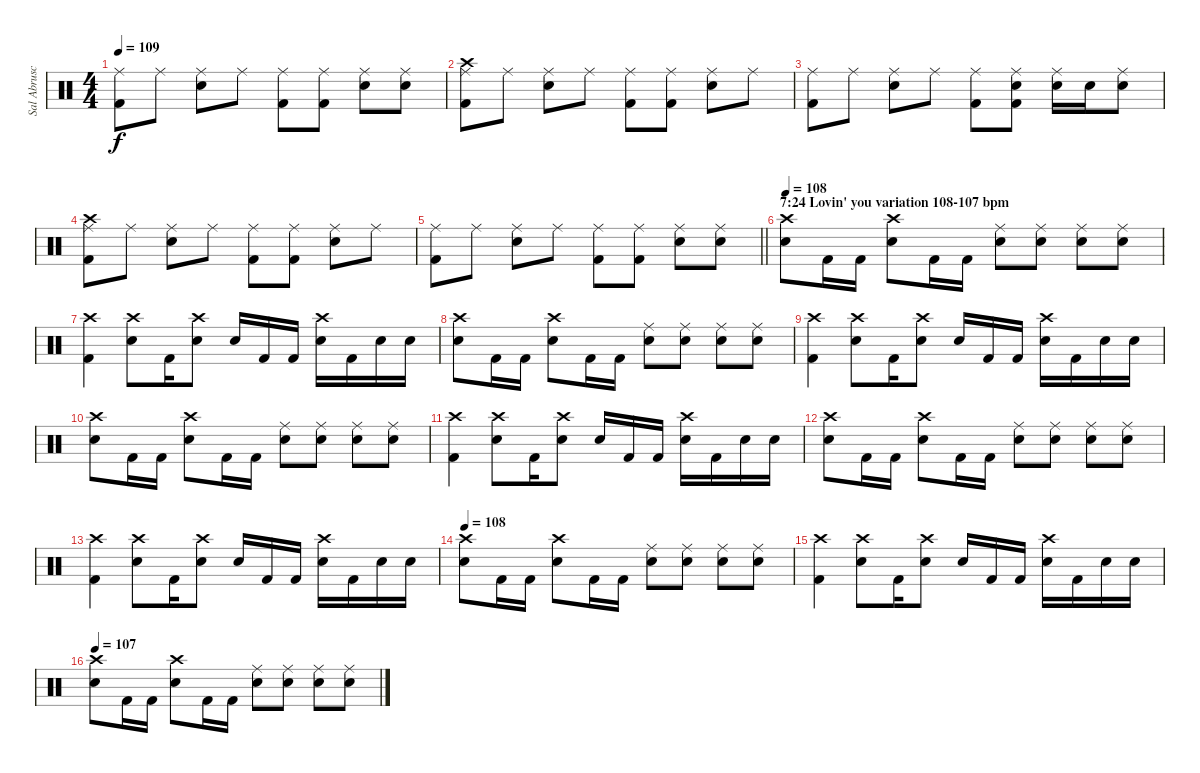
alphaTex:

\track ("Sal Abruscato (Drums)" "Sal Abrusc") {instrument percussion}
\staff {score}
\articulation defaults
\ts (4 4)
\tempo 109
\clef neutral
\ks c
("Ride (middle)" "Kick (hit) 2").8{dy f} "Ride (middle)".8 ("Ride (middle)" "Electric Snare (hit)").8 "Ride (middle)".8 ("Ride (middle)" "Kick (hit) 2").8 ("Ride (middle)" "Kick (hit) 2").8 ("Ride (middle)" "Electric Snare (hit)").8 ("Ride (middle)" "Electric Snare (hit)").8 |
("Ride (middle)" "Crash high (hit)" "Kick (hit) 2").8 "Ride (middle)".8 ("Ride (middle)" "Electric Snare (hit)").8 "Ride (middle)".8 ("Ride (middle)" "Kick (hit) 2").8 ("Ride (middle)" "Kick (hit) 2").8 ("Ride (middle)" "Electric Snare (hit)").8 "Ride (middle)".8 |
("Ride (middle)" "Kick (hit) 2").8 "Ride (middle)".8 ("Ride (middle)" "Electric Snare (hit)").8 "Ride (middle)".8 ("Ride (middle)" "Kick (hit) 2").8 ("Electric Snare (hit)" "Ride (middle)" "Kick (hit) 2").8 ("Electric Snare (hit)" "Ride (middle)").16 "Electric Snare (hit)".16 ("Ride (middle)" "Electric Snare (hit)").8 |
("Ride (middle)" "Crash high (hit)" "Kick (hit) 2").8 "Ride (middle)".8 ("Ride (middle)" "Electric Snare (hit)").8 "Ride (middle)".8 ("Ride (middle)" "Kick (hit) 2").8 ("Ride (middle)" "Kick (hit) 2").8 ("Ride (middle)" "Electric Snare (hit)").8 "Ride (middle)".8 |
\barLineRight lightlight
("Ride (middle)" "Kick (hit) 2").8 "Ride (middle)".8 ("Ride (middle)" "Electric Snare (hit)").8 "Ride (middle)".8 ("Ride (middle)" "Kick (hit) 2").8 ("Ride (middle)" "Kick (hit) 2").8 ("Ride (middle)" "Electric Snare (hit)").8 ("Ride (middle)" "Electric Snare (hit)").8 |
\section ("" "7:24 Lovin' you variation 108-107 bpm")
\tempo 108
("Crash high (hit)" "Electric Snare (hit)").8 "Kick (hit) 2".16 "Kick (hit) 2".16 ("Crash high (hit)" "Electric Snare (hit)").8 "Kick (hit) 2".16 "Kick (hit) 2".16 ("Ride (middle)" "Electric Snare (hit)").8 ("Ride (middle)" "Electric Snare (hit)").8 ("Ride (middle)" "Electric Snare (hit)").8 ("Ride (middle)" "Electric Snare (hit)").8 |
("Crash high (hit)" "Kick (hit) 2").4 ("Crash high (hit)" "Electric Snare (hit)").8 "Kick (hit) 2".16 ("Crash high (hit)" "Electric Snare (hit)").8 "Electric Snare (hit)".16 "Kick (hit) 2".16 "Kick (hit) 2".16 ("Crash high (hit)" "Electric Snare (hit)").16 "Kick (hit) 2".16 "Electric Snare (hit)".16 "Electric Snare (hit)".16 |
("Crash high (hit)" "Electric Snare (hit)").8 "Kick (hit) 2".16 "Kick (hit) 2".16 ("Crash high (hit)" "Electric Snare (hit)").8 "Kick (hit) 2".16 "Kick (hit) 2".16 ("Ride (middle)" "Electric Snare (hit)").8 ("Ride (middle)" "Electric Snare (hit)").8 ("Ride (middle)" "Electric Snare (hit)").8 ("Ride (middle)" "Electric Snare (hit)").8 |
("Crash high (hit)" "Kick (hit) 2").4 ("Crash high (hit)" "Electric Snare (hit)").8 "Kick (hit) 2".16 ("Crash high (hit)" "Electric Snare (hit)").8 "Electric Snare (hit)".16 "Kick (hit) 2".16 "Kick (hit) 2".16 ("Crash high (hit)" "Electric Snare (hit)").16 "Kick (hit) 2".16 "Electric Snare (hit)".16 "Electric Snare (hit)".16 |
("Crash high (hit)" "Electric Snare (hit)").8 "Kick (hit) 2".16 "Kick (hit) 2".16 ("Crash high (hit)" "Electric Snare (hit)").8 "Kick (hit) 2".16 "Kick (hit) 2".16 ("Ride (middle)" "Electric Snare (hit)").8 ("Ride (middle)" "Electric Snare (hit)").8 ("Ride (middle)" "Electric Snare (hit)").8 ("Ride (middle)" "Electric Snare (hit)").8 |
("Crash high (hit)" "Kick (hit) 2").4 ("Crash high (hit)" "Electric Snare (hit)").8 "Kick (hit) 2".16 ("Crash high (hit)" "Electric Snare (hit)").8 "Electric Snare (hit)".16 "Kick (hit) 2".16 "Kick (hit) 2".16 ("Crash high (hit)" "Electric Snare (hit)").16 "Kick (hit) 2".16 "Electric Snare (hit)".16 "Electric Snare (hit)".16 |
("Crash high (hit)" "Electric Snare (hit)").8 "Kick (hit) 2".16 "Kick (hit) 2".16 ("Crash high (hit)" "Electric Snare (hit)").8 "Kick (hit) 2".16 "Kick (hit) 2".16 ("Ride (middle)" "Electric Snare (hit)").8 ("Ride (middle)" "Electric Snare (hit)").8 ("Ride (middle)" "Electric Snare (hit)").8 ("Ride (middle)" "Electric Snare (hit)").8 |
("Crash high (hit)" "Kick (hit) 2").4 ("Crash high (hit)" "Electric Snare (hit)").8 "Kick (hit) 2".16 ("Crash high (hit)" "Electric Snare (hit)").8 "Electric Snare (hit)".16 "Kick (hit) 2".16 "Kick (hit) 2".16 ("Crash high (hit)" "Electric Snare (hit)").16 "Kick (hit) 2".16 "Electric Snare (hit)".16 "Electric Snare (hit)".16 |
\tempo 108
("Crash high (hit)" "Electric Snare (hit)").8 "Kick (hit) 2".16 "Kick (hit) 2".16 ("Crash high (hit)" "Electric Snare (hit)").8 "Kick (hit) 2".16 "Kick (hit) 2".16 ("Ride (middle)" "Electric Snare (hit)").8 ("Ride (middle)" "Electric Snare (hit)").8 ("Ride (middle)" "Electric Snare (hit)").8 ("Ride (middle)" "Electric Snare (hit)").8 |
("Crash high (hit)" "Kick (hit) 2").4 ("Crash high (hit)" "Electric Snare (hit)").8 "Kick (hit) 2".16 ("Crash high (hit)" "Electric Snare (hit)").8 "Electric Snare (hit)".16 "Kick (hit) 2".16 "Kick (hit) 2".16 ("Crash high (hit)" "Electric Snare (hit)").16 "Kick (hit) 2".16 "Electric Snare (hit)".16 "Electric Snare (hit)".16 |
\tempo 107
("Crash high (hit)" "Electric Snare (hit)").8 "Kick (hit) 2".16 "Kick (hit) 2".16 ("Crash high (hit)" "Electric Snare (hit)").8 "Kick (hit) 2".16 "Kick (hit) 2".16 ("Ride (middle)" "Electric Snare (hit)").8 ("Ride (middle)" "Electric Snare (hit)").8 ("Ride (middle)" "Electric Snare (hit)").8 ("Ride (middle)" "Electric Snare (hit)").8
